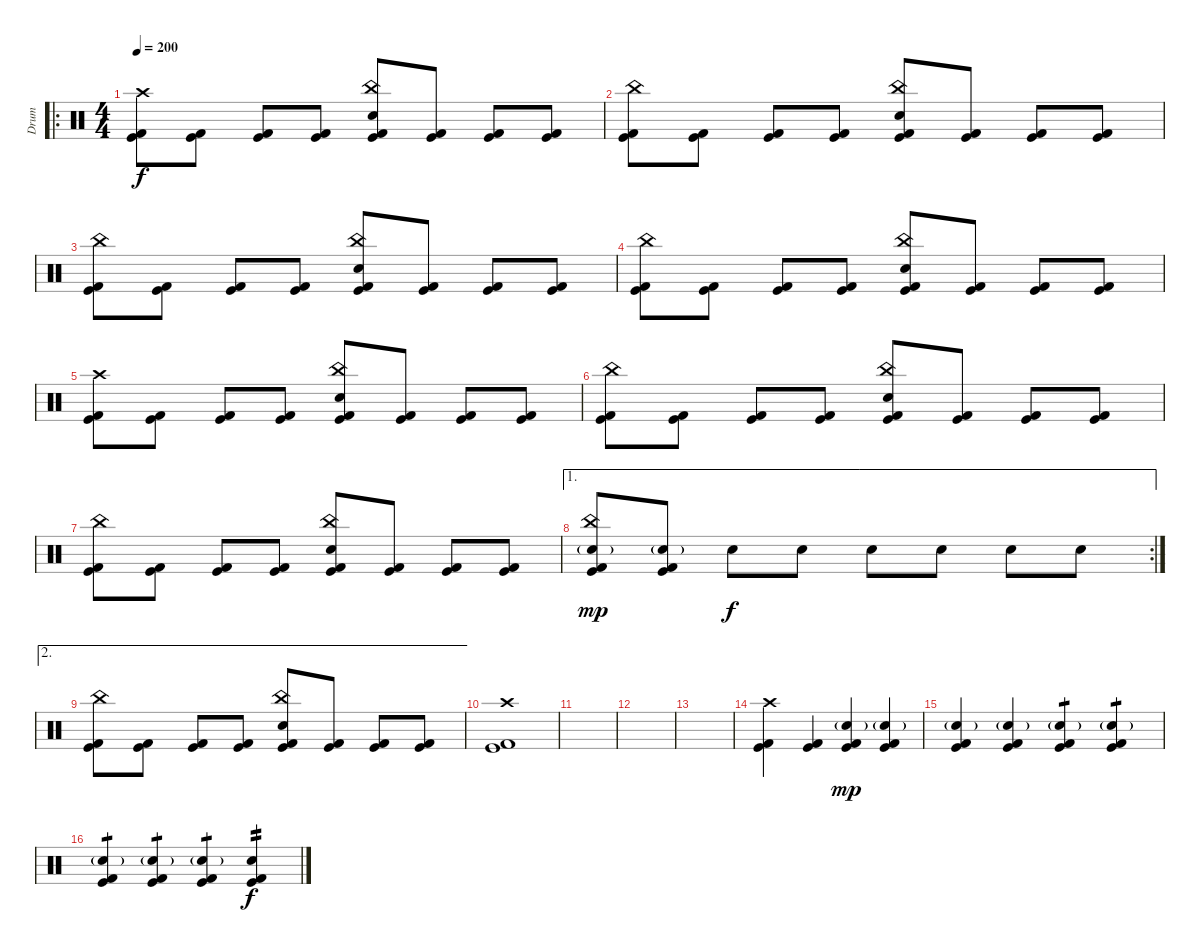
\track ("Drum" "Drum") {instrument percussion}
\staff {score}
\articulation defaults
\ro
\ts (4 4)
\tempo 200
\clef neutral
\ks c
("Crash high (hit)" "Kick (hit)" "Kick (hit) 2").8{dy f} ("Kick (hit)" "Kick (hit) 2").8 ("Kick (hit)" "Kick (hit) 2").8 ("Kick (hit)" "Kick (hit) 2").8 ("China (hit)" "Electric Snare (hit)" "Kick (hit)" "Kick (hit) 2").8 ("Kick (hit)" "Kick (hit) 2").8 ("Kick (hit)" "Kick (hit) 2").8 ("Kick (hit)" "Kick (hit) 2").8 |
("China (hit)" "Kick (hit)" "Kick (hit) 2").8 ("Kick (hit)" "Kick (hit) 2").8 ("Kick (hit)" "Kick (hit) 2").8 ("Kick (hit)" "Kick (hit) 2").8 ("China (hit)" "Electric Snare (hit)" "Kick (hit)" "Kick (hit) 2").8 ("Kick (hit)" "Kick (hit) 2").8 ("Kick (hit)" "Kick (hit) 2").8 ("Kick (hit)" "Kick (hit) 2").8 |
("China (hit)" "Kick (hit)" "Kick (hit) 2").8 ("Kick (hit)" "Kick (hit) 2").8 ("Kick (hit)" "Kick (hit) 2").8 ("Kick (hit)" "Kick (hit) 2").8 ("China (hit)" "Electric Snare (hit)" "Kick (hit)" "Kick (hit) 2").8 ("Kick (hit)" "Kick (hit) 2").8 ("Kick (hit)" "Kick (hit) 2").8 ("Kick (hit)" "Kick (hit) 2").8 |
("China (hit)" "Kick (hit)" "Kick (hit) 2").8 ("Kick (hit)" "Kick (hit) 2").8 ("Kick (hit)" "Kick (hit) 2").8 ("Kick (hit)" "Kick (hit) 2").8 ("China (hit)" "Electric Snare (hit)" "Kick (hit)" "Kick (hit) 2").8 ("Kick (hit)" "Kick (hit) 2").8 ("Kick (hit)" "Kick (hit) 2").8 ("Kick (hit)" "Kick (hit) 2").8 |
("Crash high (hit)" "Kick (hit)" "Kick (hit) 2").8 ("Kick (hit)" "Kick (hit) 2").8 ("Kick (hit)" "Kick (hit) 2").8 ("Kick (hit)" "Kick (hit) 2").8 ("China (hit)" "Electric Snare (hit)" "Kick (hit)" "Kick (hit) 2").8 ("Kick (hit)" "Kick (hit) 2").8 ("Kick (hit)" "Kick (hit) 2").8 ("Kick (hit)" "Kick (hit) 2").8 |
("China (hit)" "Kick (hit)" "Kick (hit) 2").8 ("Kick (hit)" "Kick (hit) 2").8 ("Kick (hit)" "Kick (hit) 2").8 ("Kick (hit)" "Kick (hit) 2").8 ("China (hit)" "Electric Snare (hit)" "Kick (hit)" "Kick (hit) 2").8 ("Kick (hit)" "Kick (hit) 2").8 ("Kick (hit)" "Kick (hit) 2").8 ("Kick (hit)" "Kick (hit) 2").8 |
("China (hit)" "Kick (hit)" "Kick (hit) 2").8 ("Kick (hit)" "Kick (hit) 2").8 ("Kick (hit)" "Kick (hit) 2").8 ("Kick (hit)" "Kick (hit) 2").8 ("China (hit)" "Electric Snare (hit)" "Kick (hit)" "Kick (hit) 2").8 ("Kick (hit)" "Kick (hit) 2").8 ("Kick (hit)" "Kick (hit) 2").8 ("Kick (hit)" "Kick (hit) 2").8 |
\ae 1
\rc 2
("China (hit)" "Electric Snare (hit)"{g} "Kick (hit)" "Kick (hit) 2").8{dy mp} ("Electric Snare (hit)"{g} "Kick (hit)" "Kick (hit) 2").8 "Electric Snare (hit)".8{dy f} "Electric Snare (hit)".8 "Electric Snare (hit)".8 "Electric Snare (hit)".8 "Electric Snare (hit)".8 "Electric Snare (hit)".8 |
\ae 2
("China (hit)" "Kick (hit)" "Kick (hit) 2").8 ("Kick (hit)" "Kick (hit) 2").8 ("Kick (hit)" "Kick (hit) 2").8 ("Kick (hit)" "Kick (hit) 2").8 ("China (hit)" "Electric Snare (hit)" "Kick (hit)" "Kick (hit) 2").8 ("Kick (hit)" "Kick (hit) 2").8 ("Kick (hit)" "Kick (hit) 2").8 ("Kick (hit)" "Kick (hit) 2").8 |
("Crash high (hit)" "Kick (hit)" "Kick (hit) 2").1 |
|
|
|
("Crash high (hit)" "Kick (hit)" "Kick (hit) 2").4{volume 16} ("Kick (hit)" "Kick (hit) 2").4 ("Electric Snare (hit)"{g} "Kick (hit)" "Kick (hit) 2").4{dy mp} ("Electric Snare (hit)"{g} "Kick (hit)" "Kick (hit) 2").4 |
("Electric Snare (hit)"{g} "Kick (hit)" "Kick (hit) 2").4 ("Electric Snare (hit)"{g} "Kick (hit)" "Kick (hit) 2").4 ("Electric Snare (hit)"{g} "Kick (hit)" "Kick (hit) 2").4{tp 1} ("Electric Snare (hit)"{g} "Kick (hit)" "Kick (hit) 2").4{tp 1} |
("Electric Snare (hit)"{g} "Kick (hit)" "Kick (hit) 2").4{tp 1} ("Electric Snare (hit)"{g} "Kick (hit)" "Kick (hit) 2").4{tp 1} ("Electric Snare (hit)"{g} "Kick (hit)" "Kick (hit) 2").4{tp 1} ("Electric Snare (hit)" "Kick (hit)" "Kick (hit) 2").4{tp 2 dy f}
